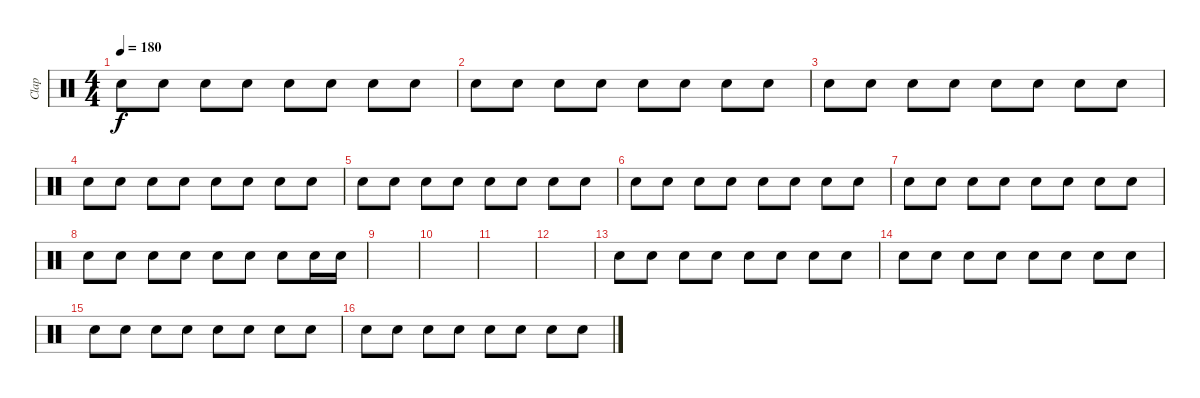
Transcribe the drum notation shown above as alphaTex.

\track ("Clap" "Clap") {instrument percussion}
\staff {score}
\articulation defaults
\ts (4 4)
\tempo 180
\clef neutral
\ks c "Hand Clap (hit)".8{dy f} "Hand Clap (hit)".8 "Hand Clap (hit)".8 "Hand Clap (hit)".8 "Hand Clap (hit)".8 "Hand Clap (hit)".8 "Hand Clap (hit)".8 "Hand Clap (hit)".8
|
"Hand Clap (hit)".8 "Hand Clap (hit)".8 "Hand Clap (hit)".8 "Hand Clap (hit)".8 "Hand Clap (hit)".8 "Hand Clap (hit)".8 "Hand Clap (hit)".8 "Hand Clap (hit)".8 |
"Hand Clap (hit)".8 "Hand Clap (hit)".8 "Hand Clap (hit)".8 "Hand Clap (hit)".8 "Hand Clap (hit)".8 "Hand Clap (hit)".8 "Hand Clap (hit)".8 "Hand Clap (hit)".8 |
"Hand Clap (hit)".8 "Hand Clap (hit)".8 "Hand Clap (hit)".8 "Hand Clap (hit)".8 "Hand Clap (hit)".8 "Hand Clap (hit)".8 "Hand Clap (hit)".8 "Hand Clap (hit)".8 |
"Hand Clap (hit)".8 "Hand Clap (hit)".8 "Hand Clap (hit)".8 "Hand Clap (hit)".8 "Hand Clap (hit)".8 "Hand Clap (hit)".8 "Hand Clap (hit)".8 "Hand Clap (hit)".8 |
"Hand Clap (hit)".8 "Hand Clap (hit)".8 "Hand Clap (hit)".8 "Hand Clap (hit)".8 "Hand Clap (hit)".8 "Hand Clap (hit)".8 "Hand Clap (hit)".8 "Hand Clap (hit)".8 |
"Hand Clap (hit)".8 "Hand Clap (hit)".8 "Hand Clap (hit)".8 "Hand Clap (hit)".8 "Hand Clap (hit)".8 "Hand Clap (hit)".8 "Hand Clap (hit)".8 "Hand Clap (hit)".8 |
"Hand Clap (hit)".8 "Hand Clap (hit)".8 "Hand Clap (hit)".8 "Hand Clap (hit)".8 "Hand Clap (hit)".8 "Hand Clap (hit)".8 "Hand Clap (hit)".8 "Hand Clap (hit)".16 "Hand Clap (hit)".16 |
|
|
|
|
"Hand Clap (hit)".8 "Hand Clap (hit)".8 "Hand Clap (hit)".8 "Hand Clap (hit)".8 "Hand Clap (hit)".8 "Hand Clap (hit)".8 "Hand Clap (hit)".8 "Hand Clap (hit)".8 |
"Hand Clap (hit)".8 "Hand Clap (hit)".8 "Hand Clap (hit)".8 "Hand Clap (hit)".8 "Hand Clap (hit)".8 "Hand Clap (hit)".8 "Hand Clap (hit)".8 "Hand Clap (hit)".8 |
"Hand Clap (hit)".8 "Hand Clap (hit)".8 "Hand Clap (hit)".8 "Hand Clap (hit)".8 "Hand Clap (hit)".8 "Hand Clap (hit)".8 "Hand Clap (hit)".8 "Hand Clap (hit)".8 |
"Hand Clap (hit)".8 "Hand Clap (hit)".8 "Hand Clap (hit)".8 "Hand Clap (hit)".8 "Hand Clap (hit)".8 "Hand Clap (hit)".8 "Hand Clap (hit)".8 "Hand Clap (hit)".8
